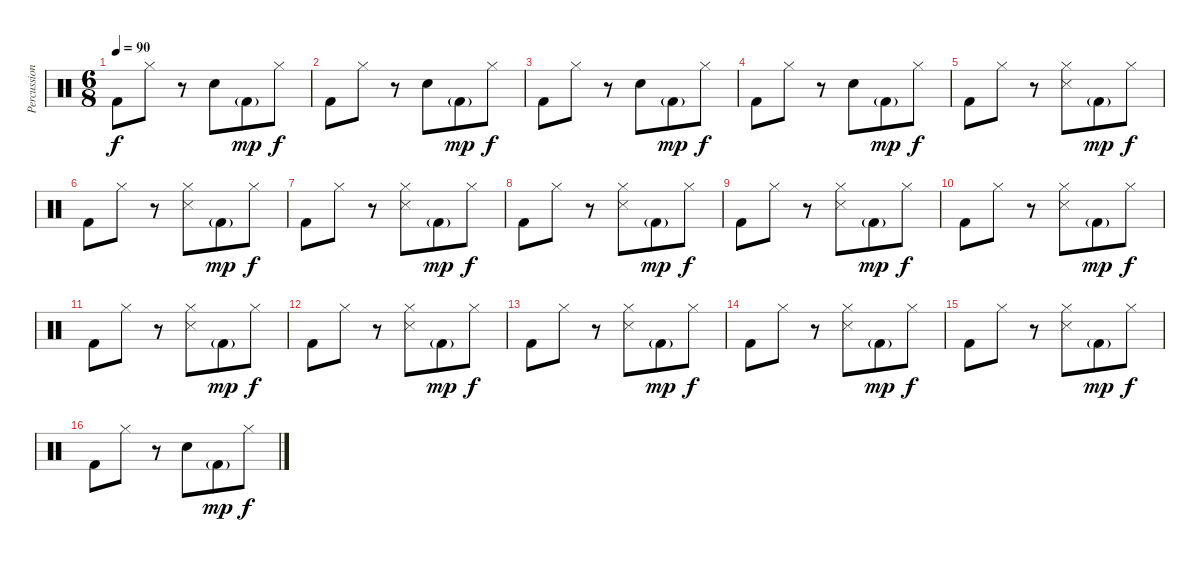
\track ("Percussion" "Percussion") {instrument percussion}
\staff {score}
\articulation defaults
\ts (6 8)
\tempo 90
\clef neutral
\ks c "Kick (hit) 2".8{dy f} "Hi-Hat (closed)".8
r.8 "Snare (hit) 2".8 "Kick (hit) 2"{g}.8{dy mp} "Hi-Hat (closed)".8{dy f} |
"Kick (hit) 2".8 "Hi-Hat (closed)".8 r.8 "Snare (hit) 2".8 "Kick (hit) 2"{g}.8{dy mp} "Hi-Hat (closed)".8{dy f} |
"Kick (hit) 2".8 "Hi-Hat (closed)".8 r.8 "Snare (hit) 2".8 "Kick (hit) 2"{g}.8{dy mp} "Hi-Hat (closed)".8{dy f} |
"Kick (hit) 2".8 "Hi-Hat (closed)".8 r.8 "Snare (hit) 2".8 "Kick (hit) 2"{g}.8{dy mp} "Hi-Hat (closed)".8{dy f} |
"Kick (hit) 2".8 "Hi-Hat (closed)".8 r.8 ("Hi-Hat (closed)" "Snare (side stick) 3").8 "Kick (hit) 2"{g}.8{dy mp} "Hi-Hat (closed)".8{dy f} |
"Kick (hit) 2".8 "Hi-Hat (closed)".8 r.8 ("Hi-Hat (closed)" "Snare (side stick) 3").8 "Kick (hit) 2"{g}.8{dy mp} "Hi-Hat (closed)".8{dy f} |
"Kick (hit) 2".8 "Hi-Hat (closed)".8 r.8 ("Hi-Hat (closed)" "Snare (side stick) 3").8 "Kick (hit) 2"{g}.8{dy mp} "Hi-Hat (closed)".8{dy f} |
"Kick (hit) 2".8 "Hi-Hat (closed)".8 r.8 ("Hi-Hat (closed)" "Snare (side stick) 3").8 "Kick (hit) 2"{g}.8{dy mp} "Hi-Hat (closed)".8{dy f} |
"Kick (hit) 2".8 "Hi-Hat (closed)".8 r.8 ("Hi-Hat (closed)" "Snare (side stick) 3").8 "Kick (hit) 2"{g}.8{dy mp} "Hi-Hat (closed)".8{dy f} |
"Kick (hit) 2".8 "Hi-Hat (closed)".8 r.8 ("Hi-Hat (closed)" "Snare (side stick) 3").8 "Kick (hit) 2"{g}.8{dy mp} "Hi-Hat (closed)".8{dy f} |
"Kick (hit) 2".8 "Hi-Hat (closed)".8 r.8 ("Hi-Hat (closed)" "Snare (side stick) 3").8 "Kick (hit) 2"{g}.8{dy mp} "Hi-Hat (closed)".8{dy f} |
"Kick (hit) 2".8 "Hi-Hat (closed)".8 r.8 ("Hi-Hat (closed)" "Snare (side stick) 3").8 "Kick (hit) 2"{g}.8{dy mp} "Hi-Hat (closed)".8{dy f} |
"Kick (hit) 2".8 "Hi-Hat (closed)".8 r.8 ("Hi-Hat (closed)" "Snare (side stick) 3").8 "Kick (hit) 2"{g}.8{dy mp} "Hi-Hat (closed)".8{dy f} |
"Kick (hit) 2".8 "Hi-Hat (closed)".8 r.8 ("Hi-Hat (closed)" "Snare (side stick) 3").8 "Kick (hit) 2"{g}.8{dy mp} "Hi-Hat (closed)".8{dy f} |
"Kick (hit) 2".8 "Hi-Hat (closed)".8 r.8 ("Hi-Hat (closed)" "Snare (side stick) 3").8 "Kick (hit) 2"{g}.8{dy mp} "Hi-Hat (closed)".8{dy f} |
"Kick (hit) 2".8 "Hi-Hat (closed)".8 r.8 "Snare (hit) 2".8 "Kick (hit) 2"{g}.8{dy mp} "Hi-Hat (closed)".8{dy f}
